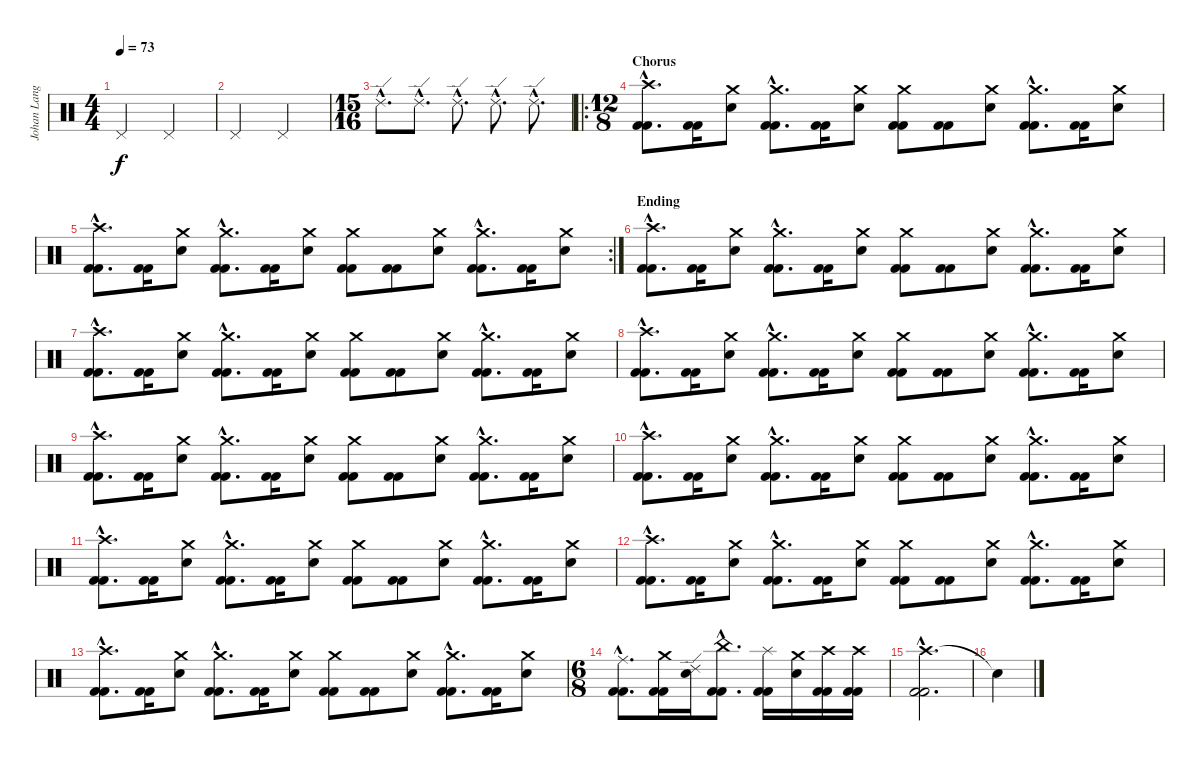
\track ("Johan Langell" "Johan Lang") {instrument percussion}
\staff {score}
\articulation defaults
\ts (4 4)
\tempo 73
\clef neutral
\ks c "Pedal Hi-Hat (hit)".2{dy f} "Pedal Hi-Hat (hit)".2
|
"Pedal Hi-Hat (hit)".2 "Pedal Hi-Hat (hit)".2 |
\ts (15 16)
"Ride (edge) 2"{hac}.8{d} "Ride (edge) 2"{hac}.8{d} "Ride (edge) 2"{hac}.8{d} "Ride (edge) 2"{hac}.8{d} "Ride (edge) 2"{hac}.8{d} |
\ro
\ts (12 8)
\section ("" "Chorus")
("Crash high (hit)"{hac} "Kick (hit) 2"{hac} "Kick (hit) 2"{hac}).8{d} ("Kick (hit) 2" "Kick (hit) 2").16 ("Crash medium (hit)" "Snare (hit) 2").8 ("Crash medium (hit)"{hac} "Kick (hit) 2"{hac} "Kick (hit) 2"{hac}).8{d} ("Kick (hit) 2" "Kick (hit) 2").16 ("Crash medium (hit)" "Snare (hit) 2").8 ("Crash medium (hit)" "Kick (hit) 2" "Kick (hit) 2").8 ("Kick (hit) 2" "Kick (hit) 2").8 ("Crash medium (hit)" "Snare (hit) 2").8 ("Crash medium (hit)"{hac} "Kick (hit) 2"{hac} "Kick (hit) 2"{hac}).8{d} ("Kick (hit) 2" "Kick (hit) 2").16 ("Crash medium (hit)" "Snare (hit) 2").8 |
\rc 2
("Crash high (hit)"{hac} "Kick (hit) 2"{hac} "Kick (hit) 2"{hac}).8{d} ("Kick (hit) 2" "Kick (hit) 2").16 ("Crash medium (hit)" "Snare (hit) 2").8 ("Crash medium (hit)"{hac} "Kick (hit) 2"{hac} "Kick (hit) 2"{hac}).8{d} ("Kick (hit) 2" "Kick (hit) 2").16 ("Crash medium (hit)" "Snare (hit) 2").8 ("Crash medium (hit)" "Kick (hit) 2" "Kick (hit) 2").8 ("Kick (hit) 2" "Kick (hit) 2").8 ("Crash medium (hit)" "Snare (hit) 2").8 ("Crash medium (hit)"{hac} "Kick (hit) 2"{hac} "Kick (hit) 2"{hac}).8{d} ("Kick (hit) 2" "Kick (hit) 2").16 ("Crash medium (hit)" "Snare (hit) 2").8 |
\section ("" "Ending")
("Crash high (hit)"{hac} "Kick (hit) 2"{hac} "Kick (hit) 2"{hac}).8{d} ("Kick (hit) 2" "Kick (hit) 2").16 ("Crash medium (hit)" "Snare (hit) 2").8 ("Crash medium (hit)"{hac} "Kick (hit) 2"{hac} "Kick (hit) 2"{hac}).8{d} ("Kick (hit) 2" "Kick (hit) 2").16 ("Crash medium (hit)" "Snare (hit) 2").8 ("Crash medium (hit)" "Kick (hit) 2" "Kick (hit) 2").8 ("Kick (hit) 2" "Kick (hit) 2").8 ("Crash medium (hit)" "Snare (hit) 2").8 ("Crash medium (hit)"{hac} "Kick (hit) 2"{hac} "Kick (hit) 2"{hac}).8{d} ("Kick (hit) 2" "Kick (hit) 2").16 ("Crash medium (hit)" "Snare (hit) 2").8 |
("Crash high (hit)"{hac} "Kick (hit) 2"{hac} "Kick (hit) 2"{hac}).8{d} ("Kick (hit) 2" "Kick (hit) 2").16 ("Crash medium (hit)" "Snare (hit) 2").8 ("Crash medium (hit)"{hac} "Kick (hit) 2"{hac} "Kick (hit) 2"{hac}).8{d} ("Kick (hit) 2" "Kick (hit) 2").16 ("Crash medium (hit)" "Snare (hit) 2").8 ("Crash medium (hit)" "Kick (hit) 2" "Kick (hit) 2").8 ("Kick (hit) 2" "Kick (hit) 2").8 ("Crash medium (hit)" "Snare (hit) 2").8 ("Crash medium (hit)"{hac} "Kick (hit) 2"{hac} "Kick (hit) 2"{hac}).8{d} ("Kick (hit) 2" "Kick (hit) 2").16 ("Crash medium (hit)" "Snare (hit) 2").8 |
("Crash high (hit)"{hac} "Kick (hit) 2"{hac} "Kick (hit) 2"{hac}).8{d} ("Kick (hit) 2" "Kick (hit) 2").16 ("Crash medium (hit)" "Snare (hit) 2").8 ("Crash medium (hit)"{hac} "Kick (hit) 2"{hac} "Kick (hit) 2"{hac}).8{d} ("Kick (hit) 2" "Kick (hit) 2").16 ("Crash medium (hit)" "Snare (hit) 2").8 ("Crash medium (hit)" "Kick (hit) 2" "Kick (hit) 2").8 ("Kick (hit) 2" "Kick (hit) 2").8 ("Crash medium (hit)" "Snare (hit) 2").8 ("Crash medium (hit)"{hac} "Kick (hit) 2"{hac} "Kick (hit) 2"{hac}).8{d} ("Kick (hit) 2" "Kick (hit) 2").16 ("Crash medium (hit)" "Snare (hit) 2").8 |
("Crash high (hit)"{hac} "Kick (hit) 2"{hac} "Kick (hit) 2"{hac}).8{d} ("Kick (hit) 2" "Kick (hit) 2").16 ("Crash medium (hit)" "Snare (hit) 2").8 ("Crash medium (hit)"{hac} "Kick (hit) 2"{hac} "Kick (hit) 2"{hac}).8{d} ("Kick (hit) 2" "Kick (hit) 2").16 ("Crash medium (hit)" "Snare (hit) 2").8 ("Crash medium (hit)" "Kick (hit) 2" "Kick (hit) 2").8 ("Kick (hit) 2" "Kick (hit) 2").8 ("Crash medium (hit)" "Snare (hit) 2").8 ("Crash medium (hit)"{hac} "Kick (hit) 2"{hac} "Kick (hit) 2"{hac}).8{d} ("Kick (hit) 2" "Kick (hit) 2").16 ("Crash medium (hit)" "Snare (hit) 2").8 |
("Crash high (hit)"{hac} "Kick (hit) 2"{hac} "Kick (hit) 2"{hac}).8{d} ("Kick (hit) 2" "Kick (hit) 2").16 ("Crash medium (hit)" "Snare (hit) 2").8 ("Crash medium (hit)"{hac} "Kick (hit) 2"{hac} "Kick (hit) 2"{hac}).8{d} ("Kick (hit) 2" "Kick (hit) 2").16 ("Crash medium (hit)" "Snare (hit) 2").8 ("Crash medium (hit)" "Kick (hit) 2" "Kick (hit) 2").8 ("Kick (hit) 2" "Kick (hit) 2").8 ("Crash medium (hit)" "Snare (hit) 2").8 ("Crash medium (hit)"{hac} "Kick (hit) 2"{hac} "Kick (hit) 2"{hac}).8{d} ("Kick (hit) 2" "Kick (hit) 2").16 ("Crash medium (hit)" "Snare (hit) 2").8 |
("Crash high (hit)"{hac} "Kick (hit) 2"{hac} "Kick (hit) 2"{hac}).8{d} ("Kick (hit) 2" "Kick (hit) 2").16 ("Crash medium (hit)" "Snare (hit) 2").8 ("Crash medium (hit)"{hac} "Kick (hit) 2"{hac} "Kick (hit) 2"{hac}).8{d} ("Kick (hit) 2" "Kick (hit) 2").16 ("Crash medium (hit)" "Snare (hit) 2").8 ("Crash medium (hit)" "Kick (hit) 2" "Kick (hit) 2").8 ("Kick (hit) 2" "Kick (hit) 2").8 ("Crash medium (hit)" "Snare (hit) 2").8 ("Crash medium (hit)"{hac} "Kick (hit) 2"{hac} "Kick (hit) 2"{hac}).8{d} ("Kick (hit) 2" "Kick (hit) 2").16 ("Crash medium (hit)" "Snare (hit) 2").8 |
("Crash high (hit)"{hac} "Kick (hit) 2"{hac} "Kick (hit) 2"{hac}).8{d} ("Kick (hit) 2" "Kick (hit) 2").16 ("Crash medium (hit)" "Snare (hit) 2").8 ("Crash medium (hit)"{hac} "Kick (hit) 2"{hac} "Kick (hit) 2"{hac}).8{d} ("Kick (hit) 2" "Kick (hit) 2").16 ("Crash medium (hit)" "Snare (hit) 2").8 ("Crash medium (hit)" "Kick (hit) 2" "Kick (hit) 2").8 ("Kick (hit) 2" "Kick (hit) 2").8 ("Crash medium (hit)" "Snare (hit) 2").8 ("Crash medium (hit)"{hac} "Kick (hit) 2"{hac} "Kick (hit) 2"{hac}).8{d} ("Kick (hit) 2" "Kick (hit) 2").16 ("Crash medium (hit)" "Snare (hit) 2").8 |
("Crash high (hit)"{hac} "Kick (hit) 2"{hac} "Kick (hit) 2"{hac}).8{d} ("Kick (hit) 2" "Kick (hit) 2").16 ("Crash medium (hit)" "Snare (hit) 2").8 ("Crash medium (hit)"{hac} "Kick (hit) 2"{hac} "Kick (hit) 2"{hac}).8{d} ("Kick (hit) 2" "Kick (hit) 2").16 ("Crash medium (hit)" "Snare (hit) 2").8 ("Crash medium (hit)" "Kick (hit) 2" "Kick (hit) 2").8 ("Kick (hit) 2" "Kick (hit) 2").8 ("Crash medium (hit)" "Snare (hit) 2").8 ("Crash medium (hit)"{hac} "Kick (hit) 2"{hac} "Kick (hit) 2"{hac}).8{d} ("Kick (hit) 2" "Kick (hit) 2").16 ("Crash medium (hit)" "Snare (hit) 2").8 |
\ts (6 8)
("Ride (middle)"{hac} "Kick (hit) 2"{hac} "Kick (hit) 2"{hac}).8{d} ("Crash medium (hit)" "Kick (hit) 2" "Kick (hit) 2").16 ("Ride (edge) 2" "Snare (hit) 2").16 ("China (hit)"{hac} "Kick (hit) 2"{hac} "Kick (hit) 2"{hac}).8{d} ("Splash (hit)" "Kick (hit) 2" "Kick (hit) 2").16 ("Crash medium (hit)" "Snare (hit) 2").16 ("Crash high (hit)" "Kick (hit) 2" "Kick (hit) 2").16 ("Crash high (hit)" "Kick (hit) 2" "Kick (hit) 2").16 |
("Crash high (hit)"{hac} "Kick (hit) 2"{hac} "Kick (hit) 2"{hac}).2{d} |
"Snare (hit)"{t}.4
